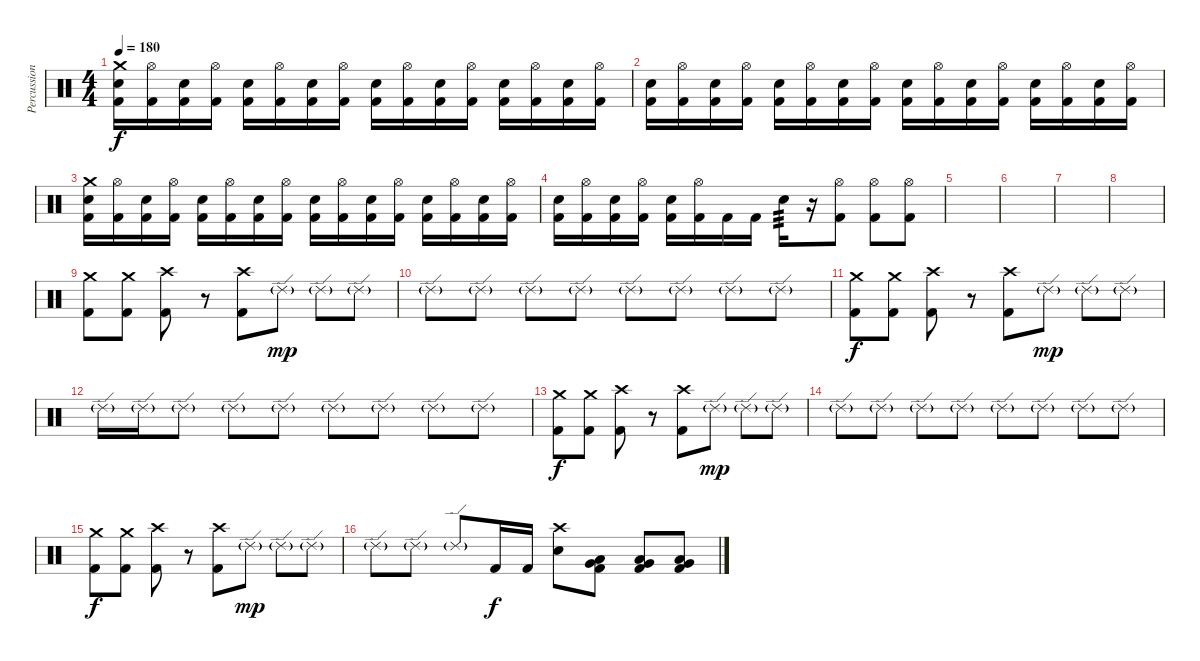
\track ("Percussion" "Percussion") {instrument percussion}
\staff {score}
\articulation defaults
\ts (4 4)
\tempo 180
\clef neutral
\ks c
("Crash medium (hit)" "Snare (hit) 2" "Kick (hit) 2").16{dy f} ("Hi-Hat (open)" "Kick (hit) 2").16 ("Snare (hit) 2" "Kick (hit) 2").16 ("Hi-Hat (open)" "Kick (hit) 2").16 ("Snare (hit) 2" "Kick (hit) 2").16 ("Hi-Hat (open)" "Kick (hit) 2").16 ("Snare (hit) 2" "Kick (hit) 2").16 ("Hi-Hat (open)" "Kick (hit) 2").16 ("Snare (hit) 2" "Kick (hit) 2").16 ("Hi-Hat (open)" "Kick (hit) 2").16 ("Snare (hit) 2" "Kick (hit) 2").16 ("Hi-Hat (open)" "Kick (hit) 2").16 ("Snare (hit) 2" "Kick (hit) 2").16 ("Hi-Hat (open)" "Kick (hit) 2").16 ("Snare (hit) 2" "Kick (hit) 2").16 ("Hi-Hat (open)" "Kick (hit) 2").16 |
("Snare (hit) 2" "Kick (hit) 2").16 ("Hi-Hat (open)" "Kick (hit) 2").16 ("Snare (hit) 2" "Kick (hit) 2").16 ("Hi-Hat (open)" "Kick (hit) 2").16 ("Snare (hit) 2" "Kick (hit) 2").16 ("Hi-Hat (open)" "Kick (hit) 2").16 ("Snare (hit) 2" "Kick (hit) 2").16 ("Hi-Hat (open)" "Kick (hit) 2").16 ("Snare (hit) 2" "Kick (hit) 2").16 ("Hi-Hat (open)" "Kick (hit) 2").16 ("Snare (hit) 2" "Kick (hit) 2").16 ("Hi-Hat (open)" "Kick (hit) 2").16 ("Snare (hit) 2" "Kick (hit) 2").16 ("Hi-Hat (open)" "Kick (hit) 2").16 ("Snare (hit) 2" "Kick (hit) 2").16 ("Hi-Hat (open)" "Kick (hit) 2").16 |
("Crash medium (hit)" "Snare (hit) 2" "Kick (hit) 2").16 ("Hi-Hat (open)" "Kick (hit) 2").16 ("Snare (hit) 2" "Kick (hit) 2").16 ("Hi-Hat (open)" "Kick (hit) 2").16 ("Snare (hit) 2" "Kick (hit) 2").16 ("Hi-Hat (open)" "Kick (hit) 2").16 ("Snare (hit) 2" "Kick (hit) 2").16 ("Hi-Hat (open)" "Kick (hit) 2").16 ("Snare (hit) 2" "Kick (hit) 2").16 ("Hi-Hat (open)" "Kick (hit) 2").16 ("Snare (hit) 2" "Kick (hit) 2").16 ("Hi-Hat (open)" "Kick (hit) 2").16 ("Snare (hit) 2" "Kick (hit) 2").16 ("Hi-Hat (open)" "Kick (hit) 2").16 ("Snare (hit) 2" "Kick (hit) 2").16 ("Hi-Hat (open)" "Kick (hit) 2").16 |
("Snare (hit) 2" "Kick (hit) 2").16 ("Hi-Hat (open)" "Kick (hit) 2").16 ("Snare (hit) 2" "Kick (hit) 2").16 ("Hi-Hat (open)" "Kick (hit) 2").16 ("Snare (hit) 2" "Kick (hit) 2").16 ("Hi-Hat (open)" "Kick (hit) 2").16 "Kick (hit) 2".16 "Kick (hit) 2".16 "Snare (hit) 2".16{tp 3} r.16 ("Hi-Hat (open)" "Kick (hit) 2").8 ("Hi-Hat (open)" "Kick (hit) 2").8 ("Hi-Hat (open)" "Kick (hit) 2").8 |
|
|
|
|
("Crash medium (hit)" "Kick (hit) 2").8 ("Crash medium (hit)" "Kick (hit) 2").8 ("Crash high (hit)" "Kick (hit) 2").8 r.8 ("Crash high (hit)" "Kick (hit) 2").8 "Ride (edge) 2"{g}.8{dy mp} "Ride (edge) 2"{g}.8 "Ride (edge) 2"{g}.8 |
"Ride (edge) 2"{g}.8 "Ride (edge) 2"{g}.8 "Ride (edge) 2"{g}.8 "Ride (edge) 2"{g}.8 "Ride (edge) 2"{g}.8 "Ride (edge) 2"{g}.8 "Ride (edge) 2"{g}.8 "Ride (edge) 2"{g}.8 |
("Crash medium (hit)" "Kick (hit) 2").8{dy f} ("Crash medium (hit)" "Kick (hit) 2").8 ("Crash high (hit)" "Kick (hit) 2").8 r.8 ("Crash high (hit)" "Kick (hit) 2").8 "Ride (edge) 2"{g}.8{dy mp} "Ride (edge) 2"{g}.8 "Ride (edge) 2"{g}.8 |
"Ride (edge) 2"{g}.16 "Ride (edge) 2"{g}.16 "Ride (edge) 2"{g}.8 "Ride (edge) 2"{g}.8 "Ride (edge) 2"{g}.8 "Ride (edge) 2"{g}.8 "Ride (edge) 2"{g}.8 "Ride (edge) 2"{g}.8 "Ride (edge) 2"{g}.8 |
("Crash medium (hit)" "Kick (hit) 2").8{dy f} ("Crash medium (hit)" "Kick (hit) 2").8 ("Crash high (hit)" "Kick (hit) 2").8 r.8 ("Crash high (hit)" "Kick (hit) 2").8 "Ride (edge) 2"{g}.8{dy mp} "Ride (edge) 2"{g}.8 "Ride (edge) 2"{g}.8 |
"Ride (edge) 2"{g}.8 "Ride (edge) 2"{g}.8 "Ride (edge) 2"{g}.8 "Ride (edge) 2"{g}.8 "Ride (edge) 2"{g}.8 "Ride (edge) 2"{g}.8 "Ride (edge) 2"{g}.8 "Ride (edge) 2"{g}.8 |
("Crash medium (hit)" "Kick (hit) 2").8{dy f} ("Crash medium (hit)" "Kick (hit) 2").8 ("Crash high (hit)" "Kick (hit) 2").8 r.8 ("Crash high (hit)" "Kick (hit) 2").8 "Ride (edge) 2"{g}.8{dy mp} "Ride (edge) 2"{g}.8 "Ride (edge) 2"{g}.8 |
"Ride (edge) 2"{g}.8 "Ride (edge) 2"{g}.8 "Ride (edge) 2"{g}.8 "Kick (hit) 2".16{dy f} "Kick (hit) 2".16 ("Crash high (hit)" "Snare (hit) 2").8 ("Low Tom (hit)" "Very Low Tom (hit)" "Kick (hit) 2").8 ("Low Tom (hit)" "Very Low Tom (hit)" "Kick (hit) 2").8 ("Low Tom (hit)" "Very Low Tom (hit)" "Kick (hit) 2").8
